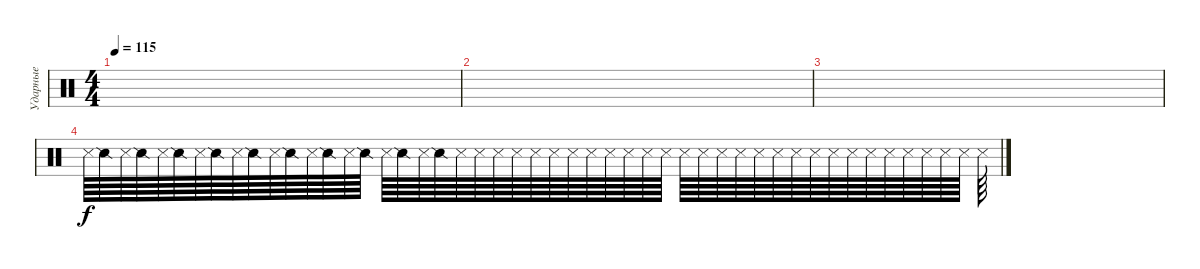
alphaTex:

\track ("Ударные" "Ударные") {instrument percussion}
\staff {score}
\articulation defaults
\ts (4 4)
\tempo 115
\clef neutral
\ks c
|
|
|
"Snare (side stick) 3".64 "Snare (side stick) 2".64 "Snare (side stick) 3".64 "Snare (side stick) 2".64 "Snare (side stick) 3".64 "Snare (side stick) 2".64 "Snare (side stick) 3".64 "Snare (side stick) 2".64 "Snare (side stick) 3".64 "Snare (side stick) 2".64 "Snare (side stick) 3".64 "Snare (side stick) 2".64 "Snare (side stick) 3".64 "Snare (side stick) 2".64 "Snare (side stick) 3".64 "Snare (side stick) 2".64 "Snare (side stick) 3".64 "Snare (side stick) 2".64 "Snare (side stick) 3".64 "Snare (side stick) 2".64 "Snare (side stick) 3".64 "Snare (side stick) 3".64 "Snare (side stick) 3".64 "Snare (side stick) 3".64 "Snare (side stick) 3".64 "Snare (side stick) 3".64 "Snare (side stick) 3".64 "Snare (side stick) 3".64 "Snare (side stick) 3".64 "Snare (side stick) 3".64 "Snare (side stick) 3".64 "Snare (side stick) 3".64 "Snare (side stick) 3".64 "Snare (side stick) 3".64 "Snare (side stick) 3".64 "Snare (side stick) 3".64 "Snare (side stick) 3".64 "Snare (side stick) 3".64 "Snare (side stick) 3".64 "Snare (side stick) 3".64 "Snare (side stick) 3".64 "Snare (side stick) 3".64 "Snare (side stick) 3".64 "Snare (side stick) 3".64 "Snare (side stick) 3".64 "Snare (side stick) 3".64 "Snare (side stick) 3".64 "Snare (side stick) 3".64 "Snare (side stick) 3".64
